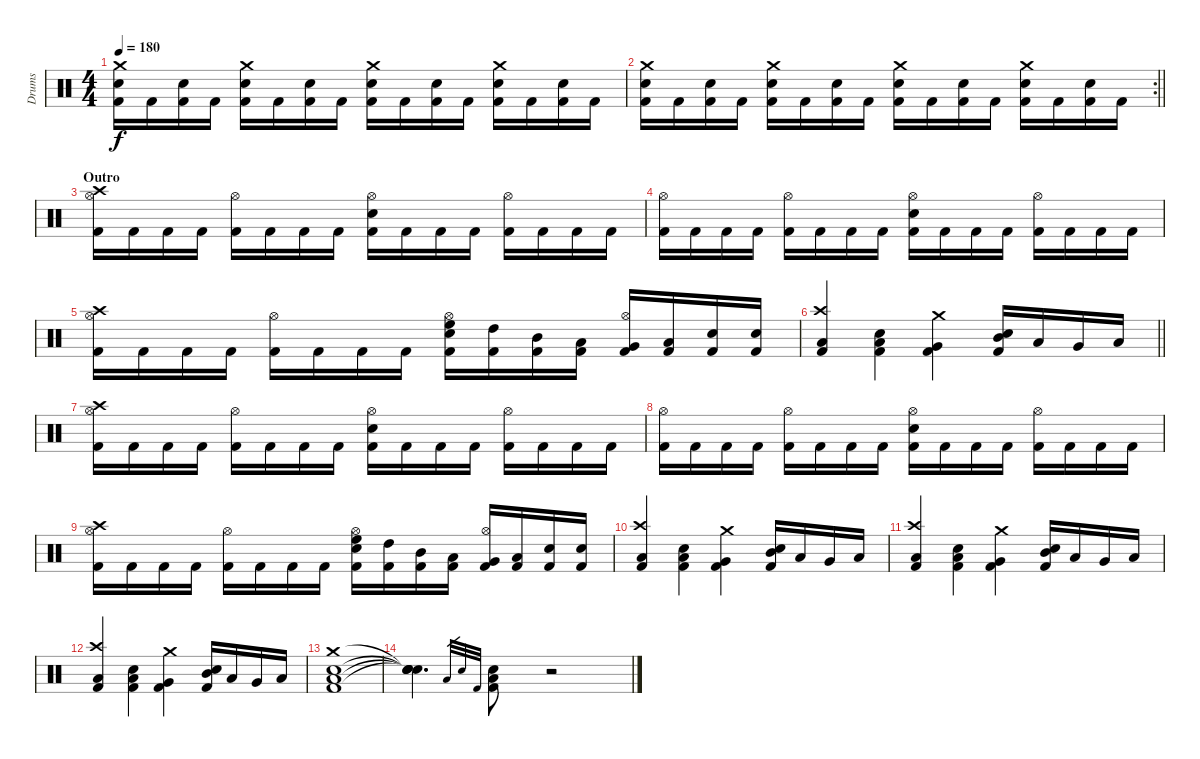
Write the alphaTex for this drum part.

\track ("Drums" "Drums") {instrument percussion}
\staff {score}
\articulation defaults
\ts (4 4)
\tempo 180
\clef neutral
\ks c
("Crash medium (hit)" "Snare (hit) 2" "Kick (hit) 2").16{dy f} "Kick (hit) 2".16 ("Snare (hit) 2" "Kick (hit) 2").16 "Kick (hit) 2".16 ("Crash medium (hit)" "Snare (hit) 2" "Kick (hit) 2").16 "Kick (hit) 2".16 ("Snare (hit) 2" "Kick (hit) 2").16 "Kick (hit) 2".16 ("Crash medium (hit)" "Snare (hit) 2" "Kick (hit) 2").16 "Kick (hit) 2".16 ("Snare (hit) 2" "Kick (hit) 2").16 "Kick (hit) 2".16 ("Crash medium (hit)" "Snare (hit) 2" "Kick (hit) 2").16 "Kick (hit) 2".16 ("Snare (hit) 2" "Kick (hit) 2").16 "Kick (hit) 2".16 |
\rc 2
\barLineRight lightlight
("Crash medium (hit)" "Snare (hit) 2" "Kick (hit) 2").16 "Kick (hit) 2".16 ("Snare (hit) 2" "Kick (hit) 2").16 "Kick (hit) 2".16 ("Crash medium (hit)" "Snare (hit) 2" "Kick (hit) 2").16 "Kick (hit) 2".16 ("Snare (hit) 2" "Kick (hit) 2").16 "Kick (hit) 2".16 ("Crash medium (hit)" "Snare (hit) 2" "Kick (hit) 2").16 "Kick (hit) 2".16 ("Snare (hit) 2" "Kick (hit) 2").16 "Kick (hit) 2".16 ("Crash medium (hit)" "Snare (hit) 2" "Kick (hit) 2").16 "Kick (hit) 2".16 ("Snare (hit) 2" "Kick (hit) 2").16 "Kick (hit) 2".16 |
\section ("" "Outro")
("Crash high (hit)" "Hi-Hat (open)" "Kick (hit) 2").16 "Kick (hit) 2".16 "Kick (hit) 2".16 "Kick (hit) 2".16 ("Hi-Hat (open)" "Kick (hit) 2").16 "Kick (hit) 2".16 "Kick (hit) 2".16 "Kick (hit) 2".16 ("Hi-Hat (open)" "Snare (hit) 2" "Kick (hit) 2").16 "Kick (hit) 2".16 "Kick (hit) 2".16 "Kick (hit) 2".16 ("Hi-Hat (open)" "Kick (hit) 2").16 "Kick (hit) 2".16 "Kick (hit) 2".16 "Kick (hit) 2".16 |
("Hi-Hat (open)" "Kick (hit) 2").16 "Kick (hit) 2".16 "Kick (hit) 2".16 "Kick (hit) 2".16 ("Hi-Hat (open)" "Kick (hit) 2").16 "Kick (hit) 2".16 "Kick (hit) 2".16 "Kick (hit) 2".16 ("Hi-Hat (open)" "Snare (hit) 2" "Kick (hit) 2").16 "Kick (hit) 2".16 "Kick (hit) 2".16 "Kick (hit) 2".16 ("Hi-Hat (open)" "Kick (hit) 2").16 "Kick (hit) 2".16 "Kick (hit) 2".16 "Kick (hit) 2".16 |
("Crash high (hit)" "Hi-Hat (open)" "Kick (hit) 2").16 "Kick (hit) 2".16 "Kick (hit) 2".16 "Kick (hit) 2".16 ("Hi-Hat (open)" "Kick (hit) 2").16 "Kick (hit) 2".16 "Kick (hit) 2".16 "Kick (hit) 2".16 ("Hi-Hat (open)" "High Floor Tom (hit)" "Snare (hit) 2" "Kick (hit) 2").16 ("High Tom (hit)" "Kick (hit) 2").16 ("Mid Tom (hit)" "Kick (hit) 2").16 ("Low Tom (hit)" "Kick (hit) 2").16 ("Hi-Hat (open)" "Very Low Tom (hit)" "Kick (hit) 2").16 ("Low Floor Tom (hit)" "Kick (hit) 2").16 ("Electric Snare (hit)" "Kick (hit) 2").16 ("Snare (hit) 2" "Kick (hit) 2").16 |
\barLineRight lightlight
("Crash high (hit)" "Low Floor Tom (hit)" "Kick (hit) 2").4 ("Low Floor Tom (hit)" "Snare (hit) 2" "Kick (hit) 2").4 ("Crash medium (hit)" "Very Low Tom (hit)" "Kick (hit) 2").4 ("Mid Tom (hit)" "Snare (hit) 2" "Kick (hit) 2").16 "Low Tom (hit)".16 "Very Low Tom (hit)".16 "Low Floor Tom (hit)".16 |
("Crash high (hit)" "Hi-Hat (open)" "Kick (hit) 2").16 "Kick (hit) 2".16 "Kick (hit) 2".16 "Kick (hit) 2".16 ("Hi-Hat (open)" "Kick (hit) 2").16 "Kick (hit) 2".16 "Kick (hit) 2".16 "Kick (hit) 2".16 ("Hi-Hat (open)" "Snare (hit) 2" "Kick (hit) 2").16 "Kick (hit) 2".16 "Kick (hit) 2".16 "Kick (hit) 2".16 ("Hi-Hat (open)" "Kick (hit) 2").16 "Kick (hit) 2".16 "Kick (hit) 2".16 "Kick (hit) 2".16 |
("Hi-Hat (open)" "Kick (hit) 2").16 "Kick (hit) 2".16 "Kick (hit) 2".16 "Kick (hit) 2".16 ("Hi-Hat (open)" "Kick (hit) 2").16 "Kick (hit) 2".16 "Kick (hit) 2".16 "Kick (hit) 2".16 ("Hi-Hat (open)" "Snare (hit) 2" "Kick (hit) 2").16 "Kick (hit) 2".16 "Kick (hit) 2".16 "Kick (hit) 2".16 ("Hi-Hat (open)" "Kick (hit) 2").16 "Kick (hit) 2".16 "Kick (hit) 2".16 "Kick (hit) 2".16 |
("Crash high (hit)" "Hi-Hat (open)" "Kick (hit) 2").16 "Kick (hit) 2".16 "Kick (hit) 2".16 "Kick (hit) 2".16 ("Hi-Hat (open)" "Kick (hit) 2").16 "Kick (hit) 2".16 "Kick (hit) 2".16 "Kick (hit) 2".16 ("Hi-Hat (open)" "High Floor Tom (hit)" "Snare (hit) 2" "Kick (hit) 2").16 ("High Tom (hit)" "Kick (hit) 2").16 ("Mid Tom (hit)" "Kick (hit) 2").16 ("Low Tom (hit)" "Kick (hit) 2").16 ("Hi-Hat (open)" "Very Low Tom (hit)" "Kick (hit) 2").16 ("Low Floor Tom (hit)" "Kick (hit) 2").16 ("Electric Snare (hit)" "Kick (hit) 2").16 ("Snare (hit) 2" "Kick (hit) 2").16 |
("Crash high (hit)" "Low Floor Tom (hit)" "Kick (hit) 2").4 ("Low Floor Tom (hit)" "Snare (hit) 2" "Kick (hit) 2").4 ("Crash medium (hit)" "Very Low Tom (hit)" "Kick (hit) 2").4 ("Mid Tom (hit)" "Snare (hit) 2" "Kick (hit) 2").16 "Low Tom (hit)".16 "Very Low Tom (hit)".16 "Low Floor Tom (hit)".16 |
("Crash high (hit)" "Low Floor Tom (hit)" "Kick (hit) 2").4 ("Low Floor Tom (hit)" "Snare (hit) 2" "Kick (hit) 2").4 ("Crash medium (hit)" "Very Low Tom (hit)" "Kick (hit) 2").4 ("Mid Tom (hit)" "Snare (hit) 2" "Kick (hit) 2").16 "Low Tom (hit)".16 "Very Low Tom (hit)".16 "Low Floor Tom (hit)".16 |
("Crash high (hit)" "Low Floor Tom (hit)" "Kick (hit) 2").4 ("Low Floor Tom (hit)" "Snare (hit) 2" "Kick (hit) 2").4 ("Crash medium (hit)" "Very Low Tom (hit)" "Kick (hit) 2").4 ("Mid Tom (hit)" "Snare (hit) 2" "Kick (hit) 2").16 "Low Tom (hit)".16 "Very Low Tom (hit)".16 "Low Floor Tom (hit)".16 |
("Crash medium (hit)" "Low Floor Tom (hit)" "Snare (hit) 2" "Kick (hit) 2").1 |
("Snare (hit)"{t} "Snare (hit)"{t} "Snare (hit)"{t} "Snare (hit)"{t}).4{d} "Low Floor Tom (hit)".32{gr} "Snare (hit) 2".32{gr} "Kick (hit) 2".32{gr} ("Low Floor Tom (hit)" "Snare (hit) 2" "Kick (hit) 2").8 r.2
